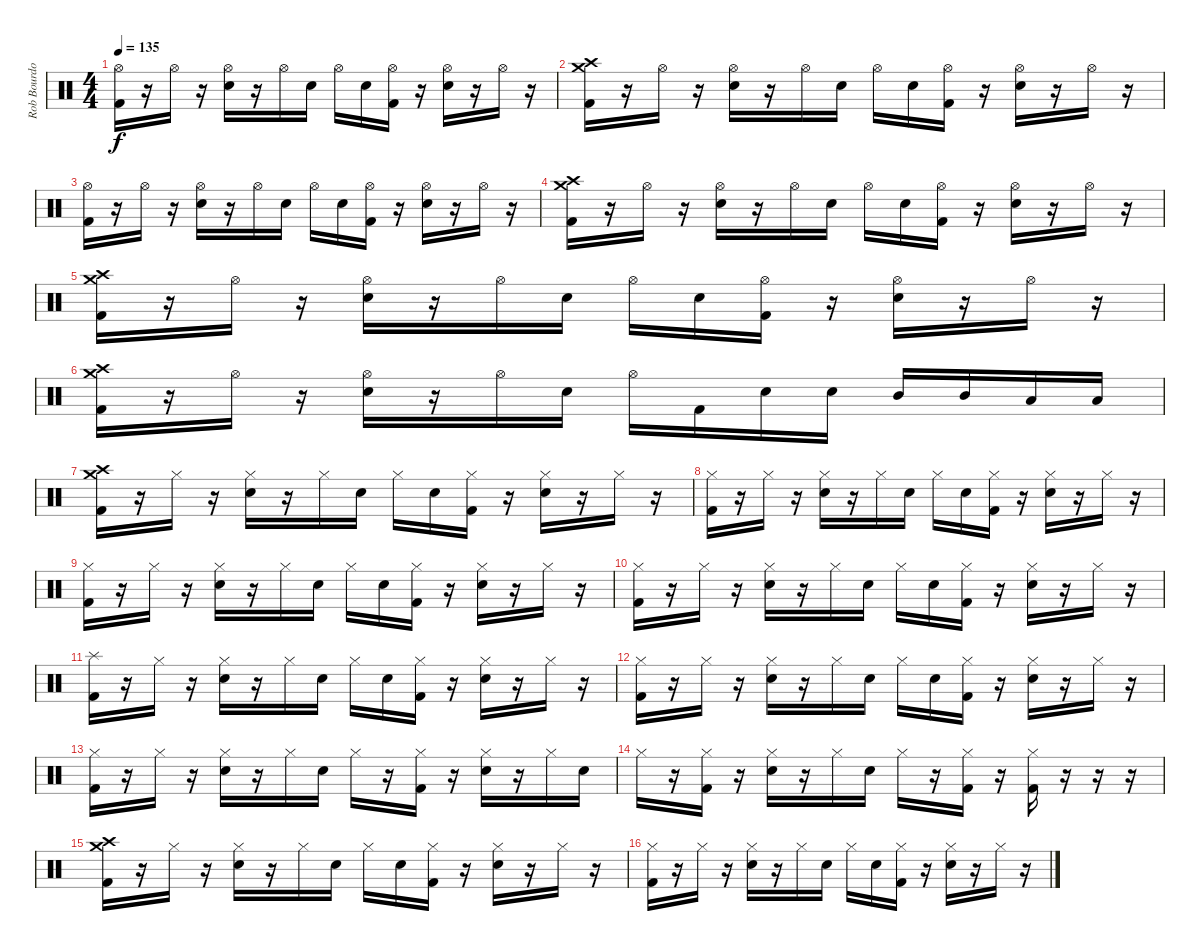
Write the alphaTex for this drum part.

\track ("Rob Bourdon (Drums)" "Rob Bourdo") {instrument percussion}
\staff {score}
\articulation defaults
\ts (4 4)
\tempo 135
\clef neutral
\ks c
("Hi-Hat (open)" "Kick (hit) 2").16{dy f} r.16 "Hi-Hat (open)".16 r.16 ("Hi-Hat (open)" "Electric Snare (hit)").16 r.16 "Hi-Hat (open)".16 "Electric Snare (hit)".16 "Hi-Hat (open)".16 "Electric Snare (hit)".16 ("Hi-Hat (open)" "Kick (hit) 2").16 r.16 ("Hi-Hat (open)" "Electric Snare (hit)").16 r.16 "Hi-Hat (open)".16 r.16 |
("Crash high (hit)" "Crash medium (hit)" "Kick (hit) 2").16 r.16 "Hi-Hat (open)".16 r.16 ("Hi-Hat (open)" "Electric Snare (hit)").16 r.16 "Hi-Hat (open)".16 "Electric Snare (hit)".16 "Hi-Hat (open)".16 "Electric Snare (hit)".16 ("Hi-Hat (open)" "Kick (hit) 2").16 r.16 ("Hi-Hat (open)" "Electric Snare (hit)").16 r.16 "Hi-Hat (open)".16 r.16 |
("Hi-Hat (open)" "Kick (hit) 2").16 r.16 "Hi-Hat (open)".16 r.16 ("Hi-Hat (open)" "Electric Snare (hit)").16 r.16 "Hi-Hat (open)".16 "Electric Snare (hit)".16 "Hi-Hat (open)".16 "Electric Snare (hit)".16 ("Hi-Hat (open)" "Kick (hit) 2").16 r.16 ("Hi-Hat (open)" "Electric Snare (hit)").16 r.16 "Hi-Hat (open)".16 r.16 |
("Crash high (hit)" "Crash medium (hit)" "Kick (hit) 2").16 r.16 "Hi-Hat (open)".16 r.16 ("Hi-Hat (open)" "Electric Snare (hit)").16 r.16 "Hi-Hat (open)".16 "Electric Snare (hit)".16 "Hi-Hat (open)".16 "Electric Snare (hit)".16 ("Hi-Hat (open)" "Kick (hit) 2").16 r.16 ("Hi-Hat (open)" "Electric Snare (hit)").16 r.16 "Hi-Hat (open)".16 r.16 |
("Crash high (hit)" "Crash medium (hit)" "Kick (hit) 2").16 r.16 "Hi-Hat (open)".16 r.16 ("Hi-Hat (open)" "Electric Snare (hit)").16 r.16 "Hi-Hat (open)".16 "Electric Snare (hit)".16 "Hi-Hat (open)".16 "Electric Snare (hit)".16 ("Hi-Hat (open)" "Kick (hit) 2").16 r.16 ("Hi-Hat (open)" "Electric Snare (hit)").16 r.16 "Hi-Hat (open)".16 r.16 |
("Crash high (hit)" "Crash medium (hit)" "Kick (hit) 2").16 r.16 "Hi-Hat (open)".16 r.16 ("Hi-Hat (open)" "Electric Snare (hit)").16 r.16 "Hi-Hat (open)".16 "Electric Snare (hit)".16 "Hi-Hat (open)".16 "Kick (hit) 2".16 "Electric Snare (hit)".16 "Electric Snare (hit)".16 "Mid Tom (hit)".16 "Mid Tom (hit)".16 "Low Tom (hit)".16 "Low Tom (hit)".16 |
("Crash high (hit)" "Crash medium (hit)" "Kick (hit) 2").16 r.16 "Hi-Hat (closed)".16 r.16 ("Hi-Hat (closed)" "Electric Snare (hit)").16 r.16 "Hi-Hat (closed)".16 "Electric Snare (hit)".16 "Hi-Hat (closed)".16 "Electric Snare (hit)".16 ("Hi-Hat (closed)" "Kick (hit) 2").16 r.16 ("Hi-Hat (closed)" "Electric Snare (hit)").16 r.16 "Hi-Hat (closed)".16 r.16 |
("Hi-Hat (closed)" "Kick (hit) 2").16 r.16 "Hi-Hat (closed)".16 r.16 ("Hi-Hat (closed)" "Electric Snare (hit)").16 r.16 "Hi-Hat (closed)".16 "Electric Snare (hit)".16 "Hi-Hat (closed)".16 "Electric Snare (hit)".16 ("Hi-Hat (closed)" "Kick (hit) 2").16 r.16 ("Hi-Hat (closed)" "Electric Snare (hit)").16 r.16 "Hi-Hat (closed)".16 r.16 |
("Hi-Hat (closed)" "Kick (hit) 2").16 r.16 "Hi-Hat (closed)".16 r.16 ("Hi-Hat (closed)" "Electric Snare (hit)").16 r.16 "Hi-Hat (closed)".16 "Electric Snare (hit)".16 "Hi-Hat (closed)".16 "Electric Snare (hit)".16 ("Hi-Hat (closed)" "Kick (hit) 2").16 r.16 ("Hi-Hat (closed)" "Electric Snare (hit)").16 r.16 "Hi-Hat (closed)".16 r.16 |
("Hi-Hat (closed)" "Kick (hit) 2").16 r.16 "Hi-Hat (closed)".16 r.16 ("Hi-Hat (closed)" "Electric Snare (hit)").16 r.16 "Hi-Hat (closed)".16 "Electric Snare (hit)".16 "Hi-Hat (closed)".16 "Electric Snare (hit)".16 ("Hi-Hat (closed)" "Kick (hit) 2").16 r.16 ("Hi-Hat (closed)" "Electric Snare (hit)").16 r.16 "Hi-Hat (closed)".16 r.16 |
("Splash (hit)" "Kick (hit) 2").16 r.16 "Hi-Hat (closed)".16 r.16 ("Hi-Hat (closed)" "Electric Snare (hit)").16 r.16 "Hi-Hat (closed)".16 "Electric Snare (hit)".16 "Hi-Hat (closed)".16 "Electric Snare (hit)".16 ("Hi-Hat (closed)" "Kick (hit) 2").16 r.16 ("Hi-Hat (closed)" "Electric Snare (hit)").16 r.16 "Hi-Hat (closed)".16 r.16 |
("Hi-Hat (closed)" "Kick (hit) 2").16 r.16 "Hi-Hat (closed)".16 r.16 ("Hi-Hat (closed)" "Electric Snare (hit)").16 r.16 "Hi-Hat (closed)".16 "Electric Snare (hit)".16 "Hi-Hat (closed)".16 "Electric Snare (hit)".16 ("Hi-Hat (closed)" "Kick (hit) 2").16 r.16 ("Hi-Hat (closed)" "Electric Snare (hit)").16 r.16 "Hi-Hat (closed)".16 r.16 |
("Hi-Hat (closed)" "Kick (hit) 2").16 r.16 "Hi-Hat (closed)".16 r.16 ("Hi-Hat (closed)" "Electric Snare (hit)").16 r.16 "Hi-Hat (closed)".16 "Electric Snare (hit)".16 "Hi-Hat (closed)".16 r.16 ("Hi-Hat (closed)" "Kick (hit) 2").16 r.16 ("Hi-Hat (closed)" "Electric Snare (hit)").16 r.16 "Hi-Hat (closed)".16 "Electric Snare (hit)".16 |
"Hi-Hat (closed)".16 r.16 ("Hi-Hat (closed)" "Kick (hit) 2").16 r.16 ("Hi-Hat (closed)" "Electric Snare (hit)").16 r.16 "Hi-Hat (closed)".16 "Electric Snare (hit)".16 "Hi-Hat (closed)".16 r.16 ("Hi-Hat (closed)" "Kick (hit) 2").16 r.16 ("Hi-Hat (closed)" "Kick (hit) 2").16 r.16 r.16 r.16 |
("Crash high (hit)" "Crash medium (hit)" "Kick (hit) 2").16 r.16 "Hi-Hat (closed)".16 r.16 ("Hi-Hat (closed)" "Electric Snare (hit)").16 r.16 "Hi-Hat (closed)".16 "Electric Snare (hit)".16 "Hi-Hat (closed)".16 "Electric Snare (hit)".16 ("Hi-Hat (closed)" "Kick (hit) 2").16 r.16 ("Hi-Hat (closed)" "Electric Snare (hit)").16 r.16 "Hi-Hat (closed)".16 r.16 |
("Hi-Hat (closed)" "Kick (hit) 2").16 r.16 "Hi-Hat (closed)".16 r.16 ("Hi-Hat (closed)" "Electric Snare (hit)").16 r.16 "Hi-Hat (closed)".16 "Electric Snare (hit)".16 "Hi-Hat (closed)".16 "Electric Snare (hit)".16 ("Hi-Hat (closed)" "Kick (hit) 2").16 r.16 ("Hi-Hat (closed)" "Electric Snare (hit)").16 r.16 "Hi-Hat (closed)".16 r.16
